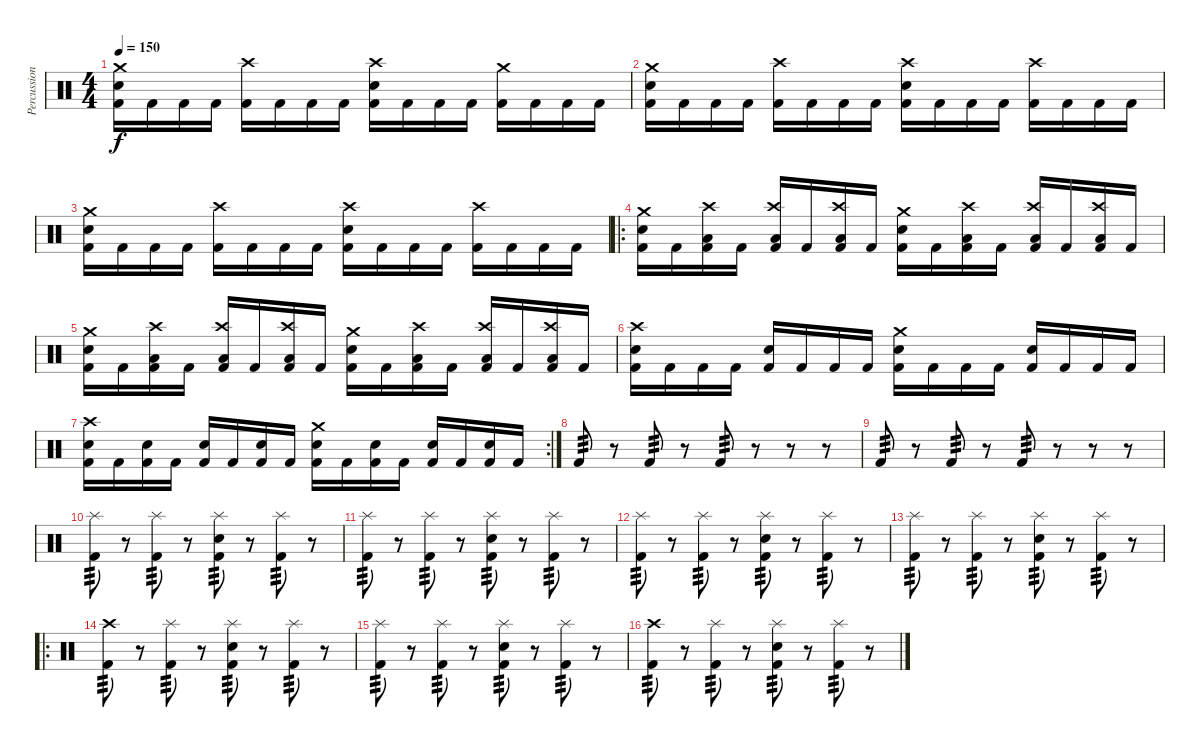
\track ("Percussion" "Percussion") {instrument percussion}
\staff {score}
\articulation defaults
\ts (4 4)
\tempo 150
\clef neutral
\ks c
("Crash medium (hit)" "Snare (hit) 2" "Kick (hit) 2").16{dy f} "Kick (hit) 2".16 "Kick (hit) 2".16 "Kick (hit) 2".16 ("Crash high (hit)" "Kick (hit) 2").16 "Kick (hit) 2".16 "Kick (hit) 2".16 "Kick (hit) 2".16 ("Crash high (hit)" "Snare (hit) 2" "Kick (hit) 2").16 "Kick (hit) 2".16 "Kick (hit) 2".16 "Kick (hit) 2".16 ("Crash medium (hit)" "Kick (hit) 2").16 "Kick (hit) 2".16 "Kick (hit) 2".16 "Kick (hit) 2".16 |
("Crash medium (hit)" "Snare (hit) 2" "Kick (hit) 2").16 "Kick (hit) 2".16 "Kick (hit) 2".16 "Kick (hit) 2".16 ("Crash high (hit)" "Kick (hit) 2").16 "Kick (hit) 2".16 "Kick (hit) 2".16 "Kick (hit) 2".16 ("Crash high (hit)" "Snare (hit) 2" "Kick (hit) 2").16 "Kick (hit) 2".16 "Kick (hit) 2".16 "Kick (hit) 2".16 ("Crash high (hit)" "Kick (hit) 2").16 "Kick (hit) 2".16 "Kick (hit) 2".16 "Kick (hit) 2".16 |
("Crash medium (hit)" "Snare (hit) 2" "Kick (hit) 2").16 "Kick (hit) 2".16 "Kick (hit) 2".16 "Kick (hit) 2".16 ("Crash high (hit)" "Kick (hit) 2").16 "Kick (hit) 2".16 "Kick (hit) 2".16 "Kick (hit) 2".16 ("Crash high (hit)" "Snare (hit) 2" "Kick (hit) 2").16 "Kick (hit) 2".16 "Kick (hit) 2".16 "Kick (hit) 2".16 ("Crash high (hit)" "Kick (hit) 2").16 "Kick (hit) 2".16 "Kick (hit) 2".16 "Kick (hit) 2".16 |
\ro
("Crash medium (hit)" "Snare (hit) 2" "Kick (hit) 2").16 "Kick (hit) 2".16 ("Crash high (hit)" "Low Floor Tom (hit)" "Kick (hit) 2").16 "Kick (hit) 2".16 ("Crash high (hit)" "Low Floor Tom (hit)" "Kick (hit) 2").16 "Kick (hit) 2".16 ("Crash high (hit)" "Low Floor Tom (hit)" "Kick (hit) 2").16 "Kick (hit) 2".16 ("Crash medium (hit)" "Snare (hit) 2" "Kick (hit) 2").16 "Kick (hit) 2".16 ("Crash high (hit)" "Low Floor Tom (hit)" "Kick (hit) 2").16 "Kick (hit) 2".16 ("Crash high (hit)" "Low Floor Tom (hit)" "Kick (hit) 2").16 "Kick (hit) 2".16 ("Crash high (hit)" "Low Floor Tom (hit)" "Kick (hit) 2").16 "Kick (hit) 2".16 |
("Crash medium (hit)" "Snare (hit) 2" "Kick (hit) 2").16 "Kick (hit) 2".16 ("Crash high (hit)" "Low Floor Tom (hit)" "Kick (hit) 2").16 "Kick (hit) 2".16 ("Crash high (hit)" "Low Floor Tom (hit)" "Kick (hit) 2").16 "Kick (hit) 2".16 ("Crash high (hit)" "Low Floor Tom (hit)" "Kick (hit) 2").16 "Kick (hit) 2".16 ("Crash medium (hit)" "Snare (hit) 2" "Kick (hit) 2").16 "Kick (hit) 2".16 ("Crash high (hit)" "Low Floor Tom (hit)" "Kick (hit) 2").16 "Kick (hit) 2".16 ("Crash high (hit)" "Low Floor Tom (hit)" "Kick (hit) 2").16 "Kick (hit) 2".16 ("Crash high (hit)" "Low Floor Tom (hit)" "Kick (hit) 2").16 "Kick (hit) 2".16 |
("Crash high (hit)" "Snare (hit) 2" "Kick (hit) 2").16 "Kick (hit) 2".16 "Kick (hit) 2".16 "Kick (hit) 2".16 ("Snare (hit) 2" "Kick (hit) 2").16 "Kick (hit) 2".16 "Kick (hit) 2".16 "Kick (hit) 2".16 ("Crash medium (hit)" "Snare (hit) 2" "Kick (hit) 2").16 "Kick (hit) 2".16 "Kick (hit) 2".16 "Kick (hit) 2".16 ("Snare (hit) 2" "Kick (hit) 2").16 "Kick (hit) 2".16 "Kick (hit) 2".16 "Kick (hit) 2".16 |
\rc 2
("Crash high (hit)" "Snare (hit) 2" "Kick (hit) 2").16 "Kick (hit) 2".16 ("Snare (hit) 2" "Kick (hit) 2").16 "Kick (hit) 2".16 ("Snare (hit) 2" "Kick (hit) 2").16 "Kick (hit) 2".16 ("Snare (hit) 2" "Kick (hit) 2").16 "Kick (hit) 2".16 ("Crash medium (hit)" "Snare (hit) 2" "Kick (hit) 2").16 "Kick (hit) 2".16 ("Snare (hit) 2" "Kick (hit) 2").16 "Kick (hit) 2".16 ("Snare (hit) 2" "Kick (hit) 2").16 "Kick (hit) 2".16 ("Snare (hit) 2" "Kick (hit) 2").16 "Kick (hit) 2".16 |
"Kick (hit) 2".8{tp 3} r.8 "Kick (hit) 2".8{tp 3} r.8 "Kick (hit) 2".8{tp 3} r.8 r.8 r.8 |
"Kick (hit) 2".8{tp 3} r.8 "Kick (hit) 2".8{tp 3} r.8 "Kick (hit) 2".8{tp 3} r.8 r.8 r.8 |
("Splash (hit)" "Kick (hit) 2").8{tp 3} r.8 ("Splash (hit)" "Kick (hit) 2").8{tp 3} r.8 ("Splash (hit)" "Snare (hit) 2" "Kick (hit) 2").8{tp 3} r.8 ("Splash (hit)" "Kick (hit) 2").8{tp 3} r.8 |
("Splash (hit)" "Kick (hit) 2").8{tp 3} r.8 ("Splash (hit)" "Kick (hit) 2").8{tp 3} r.8 ("Splash (hit)" "Snare (hit) 2" "Kick (hit) 2").8{tp 3} r.8 ("Splash (hit)" "Kick (hit) 2").8{tp 3} r.8 |
("Splash (hit)" "Kick (hit) 2").8{tp 3} r.8 ("Splash (hit)" "Kick (hit) 2").8{tp 3} r.8 ("Splash (hit)" "Snare (hit) 2" "Kick (hit) 2").8{tp 3} r.8 ("Splash (hit)" "Kick (hit) 2").8{tp 3} r.8 |
("Splash (hit)" "Kick (hit) 2").8{tp 3} r.8 ("Splash (hit)" "Kick (hit) 2").8{tp 3} r.8 ("Splash (hit)" "Snare (hit) 2" "Kick (hit) 2").8{tp 3} r.8 ("Splash (hit)" "Kick (hit) 2").8{tp 3} r.8 |
\ro
("Crash high (hit)" "Kick (hit) 2").8{tp 3} r.8 ("Splash (hit)" "Kick (hit) 2").8{tp 3} r.8 ("Splash (hit)" "Snare (hit) 2" "Kick (hit) 2").8{tp 3} r.8 ("Splash (hit)" "Kick (hit) 2").8{tp 3} r.8 |
("Splash (hit)" "Kick (hit) 2").8{tp 3} r.8 ("Splash (hit)" "Kick (hit) 2").8{tp 3} r.8 ("Splash (hit)" "Snare (hit) 2" "Kick (hit) 2").8{tp 3} r.8 ("Splash (hit)" "Kick (hit) 2").8{tp 3} r.8 |
("Crash high (hit)" "Kick (hit) 2").8{tp 3} r.8 ("Splash (hit)" "Kick (hit) 2").8{tp 3} r.8 ("Splash (hit)" "Snare (hit) 2" "Kick (hit) 2").8{tp 3} r.8 ("Splash (hit)" "Kick (hit) 2").8{tp 3} r.8
